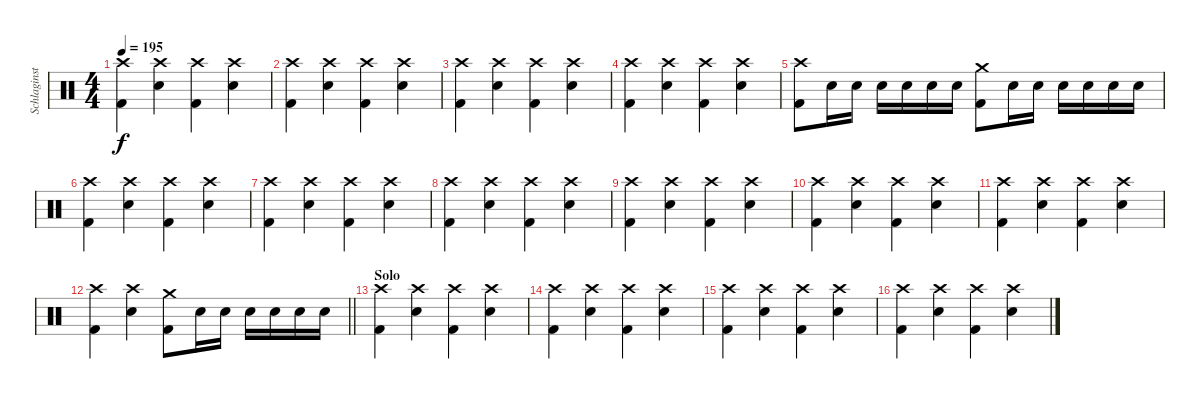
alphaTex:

\track ("Schlaginstrumente - Auswahl" "Schlaginst") {instrument percussion}
\staff {score}
\articulation defaults
\ts (4 4)
\tempo 195
\clef neutral
\ks c
("Crash high (hit)" "Kick (hit) 2").4{dy f} ("Crash high (hit)" "Snare (hit) 2").4 ("Crash high (hit)" "Kick (hit) 2").4 ("Crash high (hit)" "Snare (hit) 2").4 |
("Crash high (hit)" "Kick (hit) 2").4 ("Crash high (hit)" "Snare (hit) 2").4 ("Crash high (hit)" "Kick (hit) 2").4 ("Crash high (hit)" "Snare (hit) 2").4 |
("Crash high (hit)" "Kick (hit) 2").4 ("Crash high (hit)" "Snare (hit) 2").4 ("Crash high (hit)" "Kick (hit) 2").4 ("Crash high (hit)" "Snare (hit) 2").4 |
("Crash high (hit)" "Kick (hit) 2").4 ("Crash high (hit)" "Snare (hit) 2").4 ("Crash high (hit)" "Kick (hit) 2").4 ("Crash high (hit)" "Snare (hit) 2").4 |
("Crash high (hit)" "Kick (hit) 2").8 "Snare (hit) 2".16 "Snare (hit) 2".16 "Snare (hit) 2".16 "Snare (hit) 2".16 "Snare (hit) 2".16 "Snare (hit) 2".16 ("Crash medium (hit)" "Kick (hit) 2").8 "Snare (hit) 2".16 "Snare (hit) 2".16 "Snare (hit) 2".16 "Snare (hit) 2".16 "Snare (hit) 2".16 "Snare (hit) 2".16 |
("Crash high (hit)" "Kick (hit) 2").4 ("Crash high (hit)" "Snare (hit) 2").4 ("Crash high (hit)" "Kick (hit) 2").4 ("Crash high (hit)" "Snare (hit) 2").4 |
("Crash high (hit)" "Kick (hit) 2").4 ("Crash high (hit)" "Snare (hit) 2").4 ("Crash high (hit)" "Kick (hit) 2").4 ("Crash high (hit)" "Snare (hit) 2").4 |
("Crash high (hit)" "Kick (hit) 2").4 ("Crash high (hit)" "Snare (hit) 2").4 ("Crash high (hit)" "Kick (hit) 2").4 ("Crash high (hit)" "Snare (hit) 2").4 |
("Crash high (hit)" "Kick (hit) 2").4 ("Crash high (hit)" "Snare (hit) 2").4 ("Crash high (hit)" "Kick (hit) 2").4 ("Crash high (hit)" "Snare (hit) 2").4 |
("Crash high (hit)" "Kick (hit) 2").4 ("Crash high (hit)" "Snare (hit) 2").4 ("Crash high (hit)" "Kick (hit) 2").4 ("Crash high (hit)" "Snare (hit) 2").4 |
("Crash high (hit)" "Kick (hit) 2").4 ("Crash high (hit)" "Snare (hit) 2").4 ("Crash high (hit)" "Kick (hit) 2").4 ("Crash high (hit)" "Snare (hit) 2").4 |
\barLineRight lightlight
("Crash high (hit)" "Kick (hit) 2").4 ("Crash high (hit)" "Snare (hit) 2").4 ("Crash medium (hit)" "Kick (hit) 2").8 "Snare (hit) 2".16 "Snare (hit) 2".16 "Snare (hit) 2".16 "Snare (hit) 2".16 "Snare (hit) 2".16 "Snare (hit) 2".16 |
\section ("" "Solo")
("Crash high (hit)" "Kick (hit) 2").4 ("Crash high (hit)" "Snare (hit) 2").4 ("Crash high (hit)" "Kick (hit) 2").4 ("Crash high (hit)" "Snare (hit) 2").4 |
("Crash high (hit)" "Kick (hit) 2").4 ("Crash high (hit)" "Snare (hit) 2").4 ("Crash high (hit)" "Kick (hit) 2").4 ("Crash high (hit)" "Snare (hit) 2").4 |
("Crash high (hit)" "Kick (hit) 2").4 ("Crash high (hit)" "Snare (hit) 2").4 ("Crash high (hit)" "Kick (hit) 2").4 ("Crash high (hit)" "Snare (hit) 2").4 |
("Crash high (hit)" "Kick (hit) 2").4 ("Crash high (hit)" "Snare (hit) 2").4 ("Crash high (hit)" "Kick (hit) 2").4 ("Crash high (hit)" "Snare (hit) 2").4
